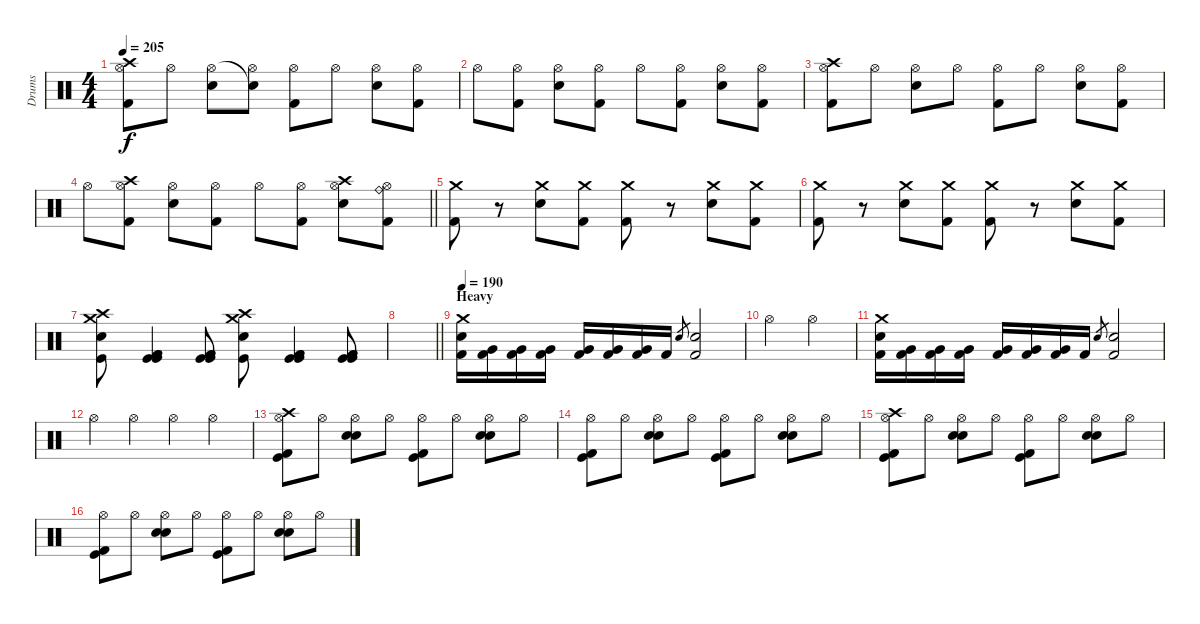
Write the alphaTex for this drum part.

\track ("Drums" "Drums") {instrument percussion}
\staff {score}
\articulation defaults
\ts (4 4)
\tempo 205
\clef neutral
\ks c
("Crash high (hit)" "Hi-Hat (open)" "Kick (hit) 2").8{dy f} "Hi-Hat (open)".8 ("Hi-Hat (open)" "Electric Snare (hit)").8 ("Snare (hit)"{t} "Hi-Hat (open)").8 ("Hi-Hat (open)" "Kick (hit) 2").8 "Hi-Hat (open)".8 ("Hi-Hat (open)" "Electric Snare (hit)").8 ("Hi-Hat (open)" "Kick (hit) 2").8 |
"Hi-Hat (open)".8 ("Hi-Hat (open)" "Kick (hit) 2").8 ("Hi-Hat (open)" "Electric Snare (hit)").8 ("Hi-Hat (open)" "Kick (hit) 2").8 "Hi-Hat (open)".8 ("Hi-Hat (open)" "Kick (hit) 2").8 ("Hi-Hat (open)" "Electric Snare (hit)").8 ("Hi-Hat (open)" "Kick (hit) 2").8 |
("Crash high (hit)" "Hi-Hat (open)" "Kick (hit) 2").8 "Hi-Hat (open)".8 ("Hi-Hat (open)" "Electric Snare (hit)").8 "Hi-Hat (open)".8 ("Hi-Hat (open)" "Kick (hit) 2").8 "Hi-Hat (open)".8 ("Hi-Hat (open)" "Electric Snare (hit)").8 ("Hi-Hat (open)" "Kick (hit) 2").8 |
\barLineRight lightlight "Hi-Hat (open)".8
("Crash high (hit)" "Hi-Hat (open)" "Kick (hit) 2").8 ("Hi-Hat (open)" "Electric Snare (hit)").8 ("Hi-Hat (open)" "Kick (hit) 2").8 "Hi-Hat (open)".8 ("Hi-Hat (open)" "Kick (hit) 2").8 ("Crash high (hit)" "Hi-Hat (open)" "Electric Snare (hit)").8 ("Ride (bell)" "Hi-Hat (open)" "Kick (hit) 2").8 |
("Kick (hit) 2" "Crash medium (hit)").8 r.8 ("Snare (hit) 2" "Crash medium (hit)").8 ("Kick (hit) 2" "Crash medium (hit)").8 ("Kick (hit) 2" "Crash medium (hit)").8 r.8 ("Snare (hit) 2" "Crash medium (hit)").8 ("Kick (hit) 2" "Crash medium (hit)").8 |
("Kick (hit) 2" "Crash medium (hit)").8 r.8 ("Snare (hit) 2" "Crash medium (hit)").8 ("Kick (hit) 2" "Crash medium (hit)").8 ("Kick (hit) 2" "Crash medium (hit)").8 r.8 ("Snare (hit) 2" "Crash medium (hit)").8 ("Kick (hit) 2" "Crash medium (hit)").8 |
("Crash medium (hit)" "Crash high (hit)" "Electric Snare (hit)" "Kick (hit)").8 ("Kick (hit)" "Kick (hit)" "Kick (hit) 2" "Kick (hit) 2").4 ("Kick (hit)" "Kick (hit)" "Kick (hit) 2" "Kick (hit) 2").8 ("Crash medium (hit)" "Crash high (hit)" "Electric Snare (hit)" "Kick (hit)").8 ("Kick (hit)" "Kick (hit)" "Kick (hit) 2" "Kick (hit) 2").4 ("Kick (hit)" "Kick (hit)" "Kick (hit) 2" "Kick (hit) 2").8 |
\barLineRight lightlight
|
\section ("" "Heavy")
\tempo 190
("Crash medium (hit)" "Electric Snare (hit)" "Kick (hit) 2").16 ("Very Low Tom (hit)" "Kick (hit) 2").16 ("Very Low Tom (hit)" "Kick (hit) 2").16 ("Very Low Tom (hit)" "Kick (hit) 2").16 ("Very Low Tom (hit)" "Kick (hit) 2").16 ("Very Low Tom (hit)" "Kick (hit) 2").16 ("Very Low Tom (hit)" "Kick (hit) 2").16 "Kick (hit) 2".16 "Electric Snare (hit)".8{gr} ("Electric Snare (hit)" "Kick (hit) 2").2 |
"Hi-Hat (open)".2 "Hi-Hat (open)".2 |
("Crash medium (hit)" "Electric Snare (hit)" "Kick (hit) 2").16 ("Very Low Tom (hit)" "Kick (hit) 2").16 ("Very Low Tom (hit)" "Kick (hit) 2").16 ("Very Low Tom (hit)" "Kick (hit) 2").16 ("Very Low Tom (hit)" "Kick (hit) 2").16 ("Very Low Tom (hit)" "Kick (hit) 2").16 ("Very Low Tom (hit)" "Kick (hit) 2").16 "Kick (hit) 2".16 "Electric Snare (hit)".8{gr} ("Electric Snare (hit)" "Kick (hit) 2").2 |
"Hi-Hat (open)".4 "Hi-Hat (open)".4 "Hi-Hat (open)".4 "Hi-Hat (open)".4 |
("Crash high (hit)" "Hi-Hat (open)" "Kick (hit) 2" "Kick (hit)").8 "Hi-Hat (open)".8 ("Hi-Hat (open)" "Snare (hit) 2" "Electric Snare (hit)").8 "Hi-Hat (open)".8 ("Hi-Hat (open)" "Kick (hit) 2" "Kick (hit)").8 "Hi-Hat (open)".8 ("Hi-Hat (open)" "Snare (hit) 2" "Electric Snare (hit)").8 "Hi-Hat (open)".8 |
("Hi-Hat (open)" "Kick (hit) 2" "Kick (hit)").8 "Hi-Hat (open)".8 ("Hi-Hat (open)" "Snare (hit) 2" "Electric Snare (hit)").8 "Hi-Hat (open)".8 ("Hi-Hat (open)" "Kick (hit) 2" "Kick (hit)").8 "Hi-Hat (open)".8 ("Hi-Hat (open)" "Snare (hit) 2" "Electric Snare (hit)").8 "Hi-Hat (open)".8 |
("Crash high (hit)" "Hi-Hat (open)" "Kick (hit) 2" "Kick (hit)").8 "Hi-Hat (open)".8 ("Hi-Hat (open)" "Snare (hit) 2" "Electric Snare (hit)").8 "Hi-Hat (open)".8 ("Hi-Hat (open)" "Kick (hit) 2" "Kick (hit)").8 "Hi-Hat (open)".8 ("Hi-Hat (open)" "Snare (hit) 2" "Electric Snare (hit)").8 "Hi-Hat (open)".8 |
("Hi-Hat (open)" "Kick (hit) 2" "Kick (hit)").8 "Hi-Hat (open)".8 ("Hi-Hat (open)" "Snare (hit) 2" "Electric Snare (hit)").8 "Hi-Hat (open)".8 ("Hi-Hat (open)" "Kick (hit) 2" "Kick (hit)").8 "Hi-Hat (open)".8 ("Hi-Hat (open)" "Snare (hit) 2" "Electric Snare (hit)").8 "Hi-Hat (open)".8
